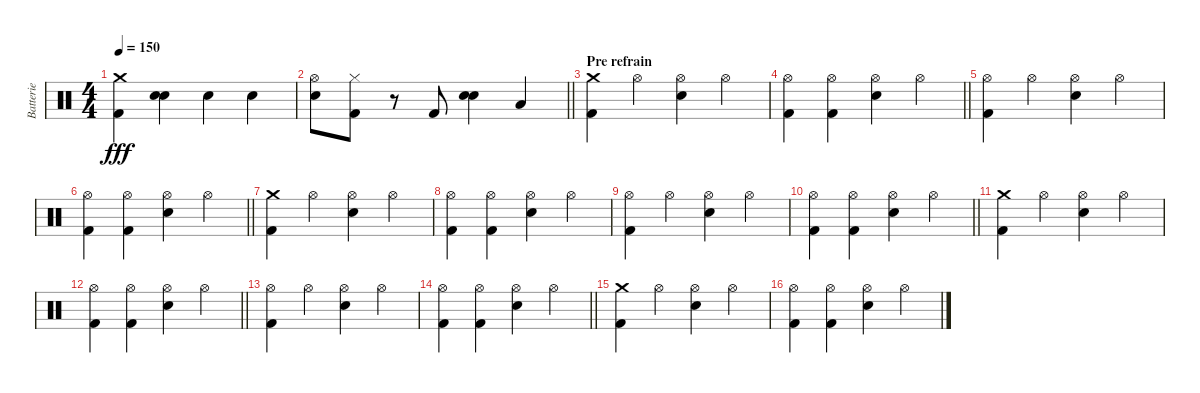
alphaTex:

\track ("Batterie" "Batterie") {instrument percussion}
\staff {score}
\articulation defaults
\ts (4 4)
\tempo 150
\clef neutral
\ks c
("Crash medium (hit)" "Kick (hit) 2").4{dy fff} ("Electric Snare (hit)" "Electric Snare (hit)").4{bu 120} "Electric Snare (hit)".4 "Electric Snare (hit)".4 |
\barLineRight lightlight
("Hi-Hat (open)" "Electric Snare (hit)").8 ("Hi-Hat (closed)" "Kick (hit) 2").8 r.8 "Kick (hit) 2".8 ("Electric Snare (hit)" "Electric Snare (hit)").4{bu 240} "Low Tom (hit)".4 |
\section ("" "Pre refrain")
("Crash medium (hit)" "Kick (hit) 2").4 "Hi-Hat (open)".4 ("Hi-Hat (open)" "Electric Snare (hit)").4 "Hi-Hat (open)".4 |
\barLineRight lightlight
("Hi-Hat (open)" "Kick (hit) 2").4 ("Hi-Hat (open)" "Kick (hit) 2").4 ("Hi-Hat (open)" "Electric Snare (hit)").4 "Hi-Hat (open)".4 |
("Hi-Hat (open)" "Kick (hit) 2").4 "Hi-Hat (open)".4 ("Hi-Hat (open)" "Electric Snare (hit)").4 "Hi-Hat (open)".4 |
\barLineRight lightlight
("Hi-Hat (open)" "Kick (hit) 2").4 ("Hi-Hat (open)" "Kick (hit) 2").4 ("Hi-Hat (open)" "Electric Snare (hit)").4 "Hi-Hat (open)".4 |
("Crash medium (hit)" "Kick (hit) 2").4 "Hi-Hat (open)".4 ("Hi-Hat (open)" "Electric Snare (hit)").4 "Hi-Hat (open)".4 |
("Hi-Hat (open)" "Kick (hit) 2").4 ("Hi-Hat (open)" "Kick (hit) 2").4 ("Hi-Hat (open)" "Electric Snare (hit)").4 "Hi-Hat (open)".4 |
("Hi-Hat (open)" "Kick (hit) 2").4 "Hi-Hat (open)".4 ("Hi-Hat (open)" "Electric Snare (hit)").4 "Hi-Hat (open)".4 |
\barLineRight lightlight
("Hi-Hat (open)" "Kick (hit) 2").4 ("Hi-Hat (open)" "Kick (hit) 2").4 ("Hi-Hat (open)" "Electric Snare (hit)").4 "Hi-Hat (open)".4 |
("Crash medium (hit)" "Kick (hit) 2").4 "Hi-Hat (open)".4 ("Hi-Hat (open)" "Electric Snare (hit)").4 "Hi-Hat (open)".4 |
\barLineRight lightlight
("Hi-Hat (open)" "Kick (hit) 2").4 ("Hi-Hat (open)" "Kick (hit) 2").4 ("Hi-Hat (open)" "Electric Snare (hit)").4 "Hi-Hat (open)".4 |
("Hi-Hat (open)" "Kick (hit) 2").4 "Hi-Hat (open)".4 ("Hi-Hat (open)" "Electric Snare (hit)").4 "Hi-Hat (open)".4 |
\barLineRight lightlight
("Hi-Hat (open)" "Kick (hit) 2").4 ("Hi-Hat (open)" "Kick (hit) 2").4 ("Hi-Hat (open)" "Electric Snare (hit)").4 "Hi-Hat (open)".4 |
("Crash medium (hit)" "Kick (hit) 2").4 "Hi-Hat (open)".4 ("Hi-Hat (open)" "Electric Snare (hit)").4 "Hi-Hat (open)".4 |
("Hi-Hat (open)" "Kick (hit) 2").4 ("Hi-Hat (open)" "Kick (hit) 2").4 ("Hi-Hat (open)" "Electric Snare (hit)").4 "Hi-Hat (open)".4
